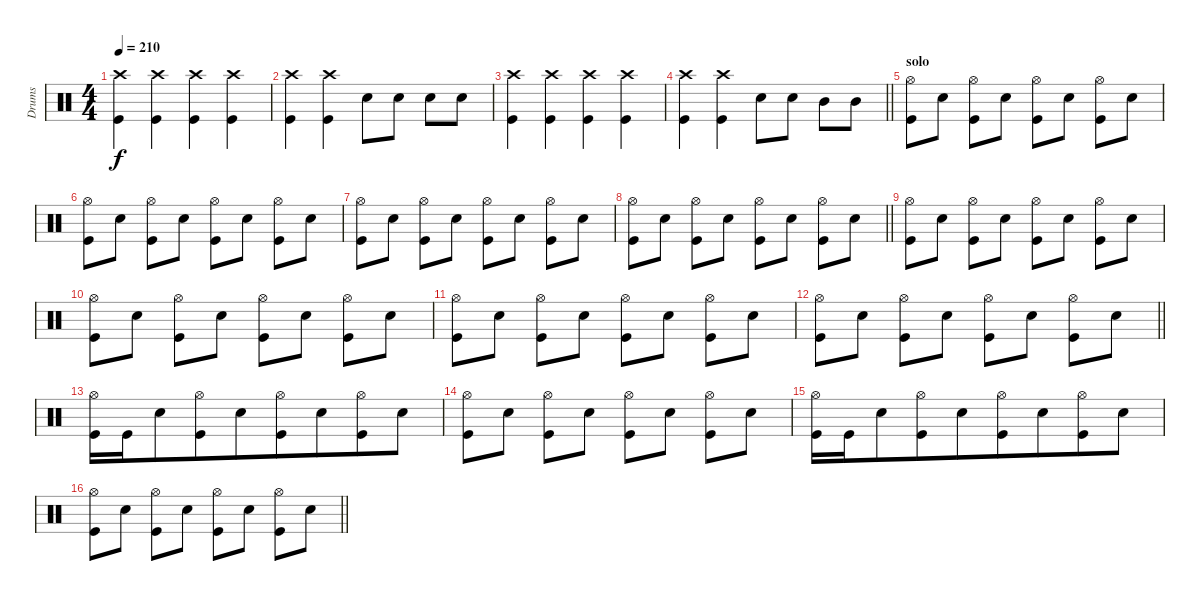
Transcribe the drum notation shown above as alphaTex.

\track ("Drums" "Drums") {instrument percussion}
\staff {score}
\articulation defaults
\ts (4 4)
\tempo 210
\clef neutral
\ks c
("Crash high (hit)" "Kick (hit)").4{dy f} ("Crash high (hit)" "Kick (hit)").4 ("Crash high (hit)" "Kick (hit)").4 ("Crash high (hit)" "Kick (hit)").4 |
("Crash high (hit)" "Kick (hit)").4 ("Crash high (hit)" "Kick (hit)").4{beam merge} "Electric Snare (hit)".8 "Electric Snare (hit)".8 "Electric Snare (hit)".8 "Electric Snare (hit)".8 |
("Crash high (hit)" "Kick (hit)").4 ("Crash high (hit)" "Kick (hit)").4 ("Crash high (hit)" "Kick (hit)").4 ("Crash high (hit)" "Kick (hit)").4 |
\barLineRight lightlight
("Crash high (hit)" "Kick (hit)").4 ("Crash high (hit)" "Kick (hit)").4{beam merge} "Electric Snare (hit)".8 "Electric Snare (hit)".8 "Mid Tom (hit)".8 "Mid Tom (hit)".8 |
\section ("" "solo")
("Hi-Hat (open)" "Kick (hit)").8 "Electric Snare (hit)".8 ("Hi-Hat (open)" "Kick (hit)").8 "Electric Snare (hit)".8 ("Hi-Hat (open)" "Kick (hit)").8 "Electric Snare (hit)".8 ("Hi-Hat (open)" "Kick (hit)").8 "Electric Snare (hit)".8 |
("Hi-Hat (open)" "Kick (hit)").8 "Electric Snare (hit)".8 ("Hi-Hat (open)" "Kick (hit)").8 "Electric Snare (hit)".8 ("Hi-Hat (open)" "Kick (hit)").8 "Electric Snare (hit)".8 ("Hi-Hat (open)" "Kick (hit)").8 "Electric Snare (hit)".8 |
("Hi-Hat (open)" "Kick (hit)").8 "Electric Snare (hit)".8 ("Hi-Hat (open)" "Kick (hit)").8 "Electric Snare (hit)".8 ("Hi-Hat (open)" "Kick (hit)").8 "Electric Snare (hit)".8 ("Hi-Hat (open)" "Kick (hit)").8 "Electric Snare (hit)".8 |
\barLineRight lightlight
("Hi-Hat (open)" "Kick (hit)").8 "Electric Snare (hit)".8 ("Hi-Hat (open)" "Kick (hit)").8 "Electric Snare (hit)".8 ("Hi-Hat (open)" "Kick (hit)").8 "Electric Snare (hit)".8 ("Hi-Hat (open)" "Kick (hit)").8 "Electric Snare (hit)".8 |
("Hi-Hat (open)" "Kick (hit)").8 "Electric Snare (hit)".8 ("Hi-Hat (open)" "Kick (hit)").8 "Electric Snare (hit)".8 ("Hi-Hat (open)" "Kick (hit)").8 "Electric Snare (hit)".8 ("Hi-Hat (open)" "Kick (hit)").8 "Electric Snare (hit)".8 |
("Hi-Hat (open)" "Kick (hit)").8 "Electric Snare (hit)".8 ("Hi-Hat (open)" "Kick (hit)").8 "Electric Snare (hit)".8 ("Hi-Hat (open)" "Kick (hit)").8 "Electric Snare (hit)".8 ("Hi-Hat (open)" "Kick (hit)").8 "Electric Snare (hit)".8 |
("Hi-Hat (open)" "Kick (hit)").8 "Electric Snare (hit)".8 ("Hi-Hat (open)" "Kick (hit)").8 "Electric Snare (hit)".8 ("Hi-Hat (open)" "Kick (hit)").8 "Electric Snare (hit)".8 ("Hi-Hat (open)" "Kick (hit)").8 "Electric Snare (hit)".8 |
\barLineRight lightlight
("Hi-Hat (open)" "Kick (hit)").8 "Electric Snare (hit)".8 ("Hi-Hat (open)" "Kick (hit)").8 "Electric Snare (hit)".8 ("Hi-Hat (open)" "Kick (hit)").8 "Electric Snare (hit)".8 ("Hi-Hat (open)" "Kick (hit)").8 "Electric Snare (hit)".8 |
("Hi-Hat (open)" "Kick (hit)").16 "Kick (hit)".16 "Electric Snare (hit)".8{beam merge} ("Hi-Hat (open)" "Kick (hit)").8 "Electric Snare (hit)".8{beam merge} ("Hi-Hat (open)" "Kick (hit)").8 "Electric Snare (hit)".8{beam merge} ("Hi-Hat (open)" "Kick (hit)").8 "Electric Snare (hit)".8 |
("Hi-Hat (open)" "Kick (hit)").8 "Electric Snare (hit)".8 ("Hi-Hat (open)" "Kick (hit)").8 "Electric Snare (hit)".8 ("Hi-Hat (open)" "Kick (hit)").8 "Electric Snare (hit)".8 ("Hi-Hat (open)" "Kick (hit)").8 "Electric Snare (hit)".8 |
("Hi-Hat (open)" "Kick (hit)").16 "Kick (hit)".16 "Electric Snare (hit)".8{beam merge} ("Hi-Hat (open)" "Kick (hit)").8 "Electric Snare (hit)".8{beam merge} ("Hi-Hat (open)" "Kick (hit)").8 "Electric Snare (hit)".8{beam merge} ("Hi-Hat (open)" "Kick (hit)").8 "Electric Snare (hit)".8 |
\barLineRight lightlight
("Hi-Hat (open)" "Kick (hit)").8 "Electric Snare (hit)".8 ("Hi-Hat (open)" "Kick (hit)").8 "Electric Snare (hit)".8 ("Hi-Hat (open)" "Kick (hit)").8 "Electric Snare (hit)".8 ("Hi-Hat (open)" "Kick (hit)").8 "Electric Snare (hit)".8
